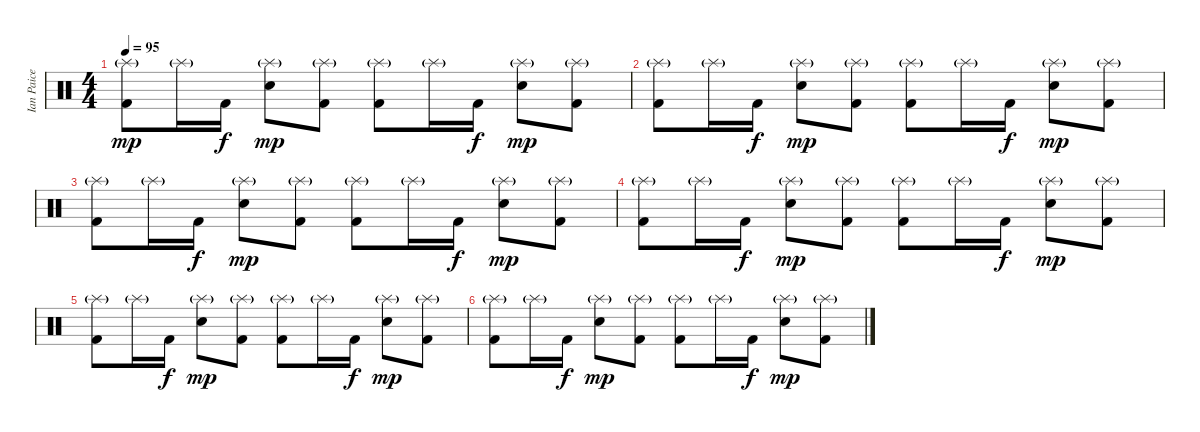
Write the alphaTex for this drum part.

\track ("Ian Paice" "Ian Paice") {instrument percussion}
\staff {score}
\articulation defaults
\ts (4 4)
\tempo 95
\clef neutral
\ks c
("Splash (hit)"{g} "Kick (hit) 2").8{dy mp} "Splash (hit)"{g}.16 "Kick (hit) 2".16{dy f} ("Splash (hit)"{g} "Snare (hit) 2").8{dy mp} ("Splash (hit)"{g} "Kick (hit) 2").8 ("Splash (hit)"{g} "Kick (hit) 2").8 "Splash (hit)"{g}.16 "Kick (hit) 2".16{dy f} ("Splash (hit)"{g} "Snare (hit) 2").8{dy mp} ("Splash (hit)"{g} "Kick (hit) 2").8 |
("Splash (hit)"{g} "Kick (hit) 2").8 "Splash (hit)"{g}.16 "Kick (hit) 2".16{dy f} ("Splash (hit)"{g} "Snare (hit) 2").8{dy mp} ("Splash (hit)"{g} "Kick (hit) 2").8 ("Splash (hit)"{g} "Kick (hit) 2").8 "Splash (hit)"{g}.16 "Kick (hit) 2".16{dy f} ("Splash (hit)"{g} "Snare (hit) 2").8{dy mp} ("Splash (hit)"{g} "Kick (hit) 2").8 |
("Splash (hit)"{g} "Kick (hit) 2").8 "Splash (hit)"{g}.16 "Kick (hit) 2".16{dy f} ("Splash (hit)"{g} "Snare (hit) 2").8{dy mp} ("Splash (hit)"{g} "Kick (hit) 2").8 ("Splash (hit)"{g} "Kick (hit) 2").8 "Splash (hit)"{g}.16 "Kick (hit) 2".16{dy f} ("Splash (hit)"{g} "Snare (hit) 2").8{dy mp} ("Splash (hit)"{g} "Kick (hit) 2").8 |
("Splash (hit)"{g} "Kick (hit) 2").8 "Splash (hit)"{g}.16 "Kick (hit) 2".16{dy f} ("Splash (hit)"{g} "Snare (hit) 2").8{dy mp} ("Splash (hit)"{g} "Kick (hit) 2").8 ("Splash (hit)"{g} "Kick (hit) 2").8 "Splash (hit)"{g}.16 "Kick (hit) 2".16{dy f} ("Splash (hit)"{g} "Snare (hit) 2").8{dy mp} ("Splash (hit)"{g} "Kick (hit) 2").8 |
("Splash (hit)"{g} "Kick (hit) 2").8 "Splash (hit)"{g}.16 "Kick (hit) 2".16{dy f} ("Splash (hit)"{g} "Snare (hit) 2").8{dy mp} ("Splash (hit)"{g} "Kick (hit) 2").8 ("Splash (hit)"{g} "Kick (hit) 2").8 "Splash (hit)"{g}.16 "Kick (hit) 2".16{dy f} ("Splash (hit)"{g} "Snare (hit) 2").8{dy mp} ("Splash (hit)"{g} "Kick (hit) 2").8 |
("Splash (hit)"{g} "Kick (hit) 2").8 "Splash (hit)"{g}.16 "Kick (hit) 2".16{dy f} ("Splash (hit)"{g} "Snare (hit) 2").8{dy mp} ("Splash (hit)"{g} "Kick (hit) 2").8 ("Splash (hit)"{g} "Kick (hit) 2").8 "Splash (hit)"{g}.16 "Kick (hit) 2".16{dy f} ("Splash (hit)"{g} "Snare (hit) 2").8{dy mp} ("Splash (hit)"{g} "Kick (hit) 2").8
